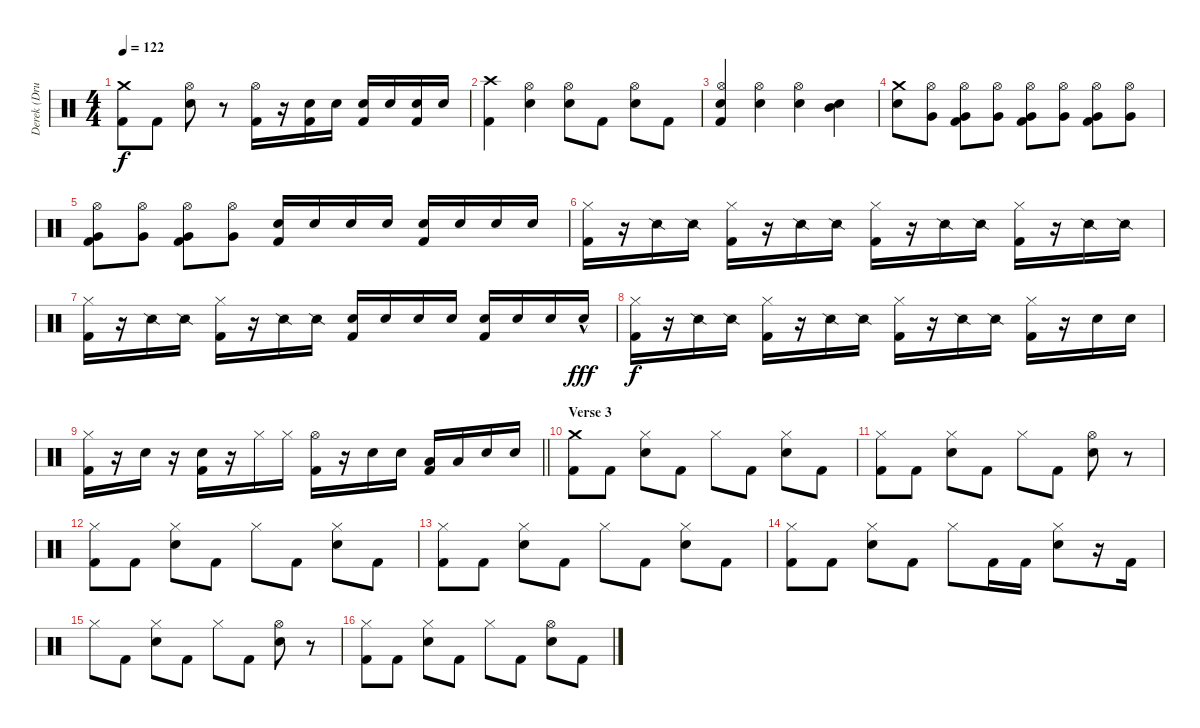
\track ("Derek (Drums)" "Derek (Dru") {instrument percussion}
\staff {score}
\articulation defaults
\ts (4 4)
\tempo 122
\clef neutral
\ks c
("Crash medium (hit)" "Kick (hit) 2").8{dy f} "Kick (hit) 2".8 ("Hi-Hat (open)" "Electric Snare (hit)").8 r.8 ("Hi-Hat (open)" "Kick (hit) 2").16 r.16 ("Electric Snare (hit)" "Kick (hit) 2").16 "Electric Snare (hit)".16 ("Electric Snare (hit)" "Kick (hit) 2").16 "Electric Snare (hit)".16 ("Electric Snare (hit)" "Kick (hit) 2").16 "Electric Snare (hit)".16 |
("Crash high (hit)" "Kick (hit) 2").4 ("Hi-Hat (open)" "Electric Snare (hit)").4 ("Hi-Hat (open)" "Electric Snare (hit)").8 "Kick (hit) 2".8 ("Hi-Hat (open)" "Electric Snare (hit)").8 "Kick (hit) 2".8 |
("Hi-Hat (open)" "Electric Snare (hit)" "Kick (hit) 2").4 ("Hi-Hat (open)" "Electric Snare (hit)").4 ("Hi-Hat (open)" "Electric Snare (hit)").4 ("Mid Tom (hit)" "Electric Snare (hit)").4 |
("Crash medium (hit)" "Electric Snare (hit)").8 ("Hi-Hat (open)" "Very Low Tom (hit)").8 ("Hi-Hat (open)" "Very Low Tom (hit)" "Kick (hit) 2").8 ("Hi-Hat (open)" "Very Low Tom (hit)").8 ("Hi-Hat (open)" "Very Low Tom (hit)" "Kick (hit) 2").8 ("Hi-Hat (open)" "Very Low Tom (hit)").8 ("Hi-Hat (open)" "Very Low Tom (hit)" "Kick (hit) 2").8 ("Hi-Hat (open)" "Very Low Tom (hit)").8 |
("Hi-Hat (open)" "Very Low Tom (hit)" "Kick (hit) 2").8 ("Hi-Hat (open)" "Very Low Tom (hit)").8 ("Hi-Hat (open)" "Very Low Tom (hit)" "Kick (hit) 2").8 ("Hi-Hat (open)" "Very Low Tom (hit)").8 ("Electric Snare (hit)" "Kick (hit) 2").16 "Electric Snare (hit)".16 "Electric Snare (hit)".16 "Electric Snare (hit)".16 ("Electric Snare (hit)" "Kick (hit) 2").16 "Electric Snare (hit)".16 "Electric Snare (hit)".16 "Electric Snare (hit)".16 |
("Hi-Hat (closed)" "Kick (hit) 2").16 r.16 "Snare (side stick) 2".16 "Snare (side stick) 2".16 ("Hi-Hat (closed)" "Kick (hit) 2").16 r.16 "Snare (side stick) 2".16 "Snare (side stick) 2".16 ("Hi-Hat (closed)" "Kick (hit) 2").16 r.16 "Snare (side stick) 2".16 "Snare (side stick) 2".16 ("Hi-Hat (closed)" "Kick (hit) 2").16 r.16 "Snare (side stick) 2".16 "Snare (side stick) 2".16 |
("Hi-Hat (closed)" "Kick (hit) 2").16 r.16 "Snare (side stick) 2".16 "Snare (side stick) 2".16 ("Hi-Hat (closed)" "Kick (hit) 2").16 r.16 "Snare (side stick) 2".16 "Snare (side stick) 2".16 ("Electric Snare (hit)" "Kick (hit) 2").16 "Electric Snare (hit)".16 "Electric Snare (hit)".16 "Electric Snare (hit)".16 ("Electric Snare (hit)" "Kick (hit) 2").16 "Electric Snare (hit)".16 "Electric Snare (hit)".16 "Electric Snare (hit)"{hac}.16{dy fff} |
("Hi-Hat (closed)" "Kick (hit) 2").16{dy f} r.16 "Snare (side stick) 2".16 "Snare (side stick) 2".16 ("Hi-Hat (closed)" "Kick (hit) 2").16 r.16 "Snare (side stick) 2".16 "Snare (side stick) 2".16 ("Hi-Hat (closed)" "Kick (hit) 2").16 r.16 "Snare (side stick) 2".16 "Snare (side stick) 2".16 ("Hi-Hat (closed)" "Kick (hit) 2").16 r.16 "Electric Snare (hit)".16 "Electric Snare (hit)".16 |
\barLineRight lightlight
("Hi-Hat (closed)" "Kick (hit) 2").16 r.16 "Electric Snare (hit)".16 r.16 ("Electric Snare (hit)" "Kick (hit) 2").16 r.16 "Hi-Hat (closed)".16 "Hi-Hat (closed)".16 ("Hi-Hat (open)" "Kick (hit) 2").16 r.16 "Electric Snare (hit)".16 "Electric Snare (hit)".16 ("Low Tom (hit)" "Kick (hit) 2").16 "Low Tom (hit)".16 "Electric Snare (hit)".16 "Electric Snare (hit)".16 |
\section ("" "Verse 3")
("Crash medium (hit)" "Kick (hit) 2").8 "Kick (hit) 2".8 ("Hi-Hat (closed)" "Electric Snare (hit)").8 "Kick (hit) 2".8 "Hi-Hat (closed)".8 "Kick (hit) 2".8 ("Hi-Hat (closed)" "Electric Snare (hit)").8 "Kick (hit) 2".8 |
("Hi-Hat (closed)" "Kick (hit) 2").8 "Kick (hit) 2".8 ("Hi-Hat (closed)" "Electric Snare (hit)").8 "Kick (hit) 2".8 "Hi-Hat (closed)".8 "Kick (hit) 2".8 ("Hi-Hat (open)" "Electric Snare (hit)").8 r.8 |
("Hi-Hat (closed)" "Kick (hit) 2").8 "Kick (hit) 2".8 ("Hi-Hat (closed)" "Electric Snare (hit)").8 "Kick (hit) 2".8 "Hi-Hat (closed)".8 "Kick (hit) 2".8 ("Hi-Hat (closed)" "Electric Snare (hit)").8 "Kick (hit) 2".8 |
("Hi-Hat (closed)" "Kick (hit) 2").8 "Kick (hit) 2".8 ("Hi-Hat (closed)" "Electric Snare (hit)").8 "Kick (hit) 2".8 "Hi-Hat (closed)".8 "Kick (hit) 2".8 ("Hi-Hat (closed)" "Electric Snare (hit)").8 "Kick (hit) 2".8 |
("Hi-Hat (closed)" "Kick (hit) 2").8 "Kick (hit) 2".8 ("Hi-Hat (closed)" "Electric Snare (hit)").8 "Kick (hit) 2".8 "Hi-Hat (closed)".8 "Kick (hit) 2".16 "Kick (hit) 2".16 ("Hi-Hat (closed)" "Electric Snare (hit)").8 r.16 "Kick (hit) 2".16 |
"Hi-Hat (closed)".8 "Kick (hit) 2".8 ("Hi-Hat (closed)" "Electric Snare (hit)").8 "Kick (hit) 2".8 "Hi-Hat (closed)".8 "Kick (hit) 2".8 ("Hi-Hat (open)" "Electric Snare (hit)").8 r.8 |
("Hi-Hat (closed)" "Kick (hit) 2").8 "Kick (hit) 2".8 ("Hi-Hat (closed)" "Electric Snare (hit)").8 "Kick (hit) 2".8 "Hi-Hat (closed)".8 "Kick (hit) 2".8 ("Hi-Hat (open)" "Electric Snare (hit)").8 "Kick (hit) 2".8
